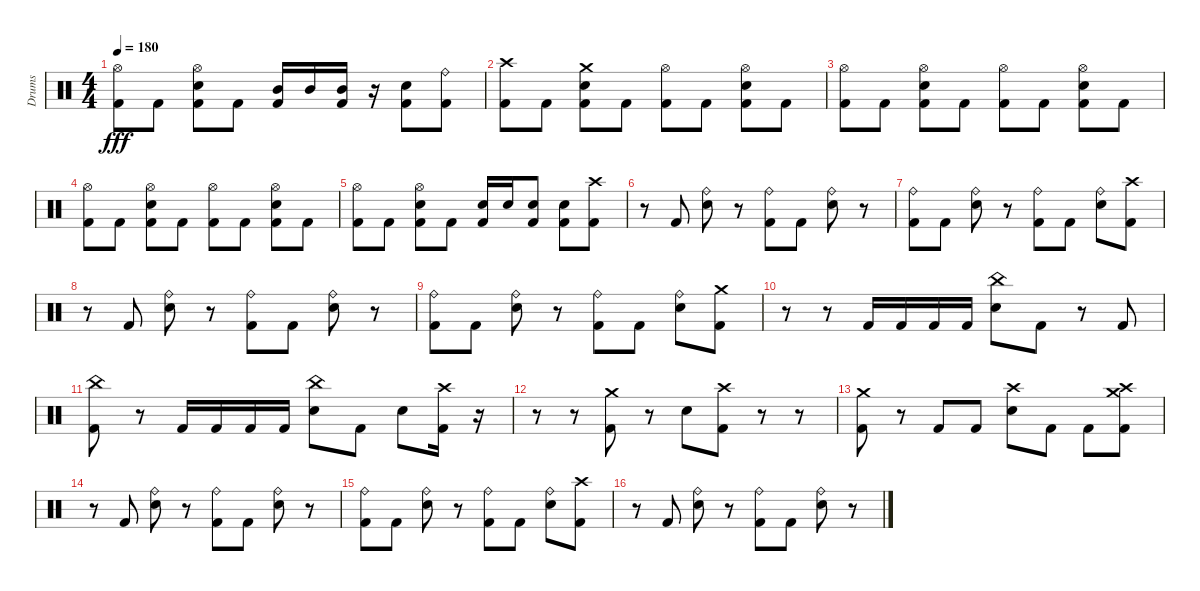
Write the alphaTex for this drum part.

\track ("Drums" "Drums") {instrument percussion}
\staff {score}
\articulation defaults
\ts (4 4)
\tempo 180
\clef neutral
\ks c
("Hi-Hat (open)" "Kick (hit) 2").8{dy fff} "Kick (hit) 2".8 ("Hi-Hat (open)" "Electric Snare (hit)" "Kick (hit) 2").8 "Kick (hit) 2".8 ("Mid Tom (hit)" "Kick (hit) 2").16 "Mid Tom (hit)".16 ("Mid Tom (hit)" "Kick (hit) 2").16 r.16 ("Electric Snare (hit)" "Kick (hit) 2").8 ("Ride (bell)" "Kick (hit) 2").8 |
("Crash high (hit)" "Kick (hit) 2").8 "Kick (hit) 2".8 ("Crash medium (hit)" "Electric Snare (hit)" "Kick (hit) 2").8 "Kick (hit) 2".8 ("Hi-Hat (open)" "Kick (hit) 2").8 "Kick (hit) 2".8 ("Hi-Hat (open)" "Electric Snare (hit)" "Kick (hit) 2").8 "Kick (hit) 2".8 |
("Hi-Hat (open)" "Kick (hit) 2").8 "Kick (hit) 2".8 ("Hi-Hat (open)" "Electric Snare (hit)" "Kick (hit) 2").8 "Kick (hit) 2".8 ("Hi-Hat (open)" "Kick (hit) 2").8 "Kick (hit) 2".8 ("Hi-Hat (open)" "Electric Snare (hit)" "Kick (hit) 2").8 "Kick (hit) 2".8 |
("Hi-Hat (open)" "Kick (hit) 2").8 "Kick (hit) 2".8 ("Hi-Hat (open)" "Electric Snare (hit)" "Kick (hit) 2").8 "Kick (hit) 2".8 ("Hi-Hat (open)" "Kick (hit) 2").8 "Kick (hit) 2".8 ("Hi-Hat (open)" "Electric Snare (hit)" "Kick (hit) 2").8 "Kick (hit) 2".8 |
("Hi-Hat (open)" "Kick (hit) 2").8 "Kick (hit) 2".8 ("Hi-Hat (open)" "Electric Snare (hit)" "Kick (hit) 2").8 "Kick (hit) 2".8 ("Electric Snare (hit)" "Kick (hit) 2").16 "Electric Snare (hit)".16 ("Electric Snare (hit)" "Kick (hit) 2").8 ("Electric Snare (hit)" "Kick (hit) 2").8 ("Crash high (hit)" "Kick (hit) 2").8 |
r.8 "Kick (hit) 2".8 ("Ride (bell)" "Electric Snare (hit)").8 r.8 ("Ride (bell)" "Kick (hit) 2").8 "Kick (hit) 2".8 ("Ride (bell)" "Electric Snare (hit)").8 r.8 |
("Ride (bell)" "Kick (hit) 2").8 "Kick (hit) 2".8 ("Ride (bell)" "Electric Snare (hit)").8 r.8 ("Ride (bell)" "Kick (hit) 2").8 "Kick (hit) 2".8 ("Ride (bell)" "Electric Snare (hit)").8 ("Crash high (hit)" "Kick (hit) 2").8 |
r.8 "Kick (hit) 2".8 ("Ride (bell)" "Electric Snare (hit)").8 r.8 ("Ride (bell)" "Kick (hit) 2").8 "Kick (hit) 2".8 ("Ride (bell)" "Electric Snare (hit)").8 r.8 |
("Ride (bell)" "Kick (hit) 2").8 "Kick (hit) 2".8 ("Ride (bell)" "Electric Snare (hit)").8 r.8 ("Ride (bell)" "Kick (hit) 2").8 "Kick (hit) 2".8 ("Ride (bell)" "Electric Snare (hit)").8 ("Crash medium (hit)" "Kick (hit) 2").8 |
r.8 r.8 "Kick (hit) 2".16 "Kick (hit) 2".16 "Kick (hit) 2".16 "Kick (hit) 2".16 ("China (hit)" "Electric Snare (hit)").8 "Kick (hit) 2".8 r.8 "Kick (hit) 2".8 |
("China (hit)" "Kick (hit) 2").8 r.8 "Kick (hit) 2".16 "Kick (hit) 2".16 "Kick (hit) 2".16 "Kick (hit) 2".16 ("China (hit)" "Electric Snare (hit)").8 "Kick (hit) 2".8 "Electric Snare (hit)".8 ("Crash high (hit)" "Kick (hit) 2").16 r.16 |
r.8 r.8 ("Crash medium (hit)" "Kick (hit) 2").8 r.8 "Electric Snare (hit)".8 ("Crash high (hit)" "Kick (hit) 2").8 r.8 r.8 |
("Crash medium (hit)" "Kick (hit) 2").8 r.8 "Kick (hit) 2".8 "Kick (hit) 2".8 ("Crash high (hit)" "Electric Snare (hit)").8 "Kick (hit) 2".8 "Kick (hit) 2".8 ("Crash high (hit)" "Crash medium (hit)" "Kick (hit) 2").8 |
r.8 "Kick (hit) 2".8 ("Ride (bell)" "Electric Snare (hit)").8 r.8 ("Ride (bell)" "Kick (hit) 2").8 "Kick (hit) 2".8 ("Ride (bell)" "Electric Snare (hit)").8 r.8 |
("Ride (bell)" "Kick (hit) 2").8 "Kick (hit) 2".8 ("Ride (bell)" "Electric Snare (hit)").8 r.8 ("Ride (bell)" "Kick (hit) 2").8 "Kick (hit) 2".8 ("Ride (bell)" "Electric Snare (hit)").8 ("Crash high (hit)" "Kick (hit) 2").8 |
r.8 "Kick (hit) 2".8 ("Ride (bell)" "Electric Snare (hit)").8 r.8 ("Ride (bell)" "Kick (hit) 2").8 "Kick (hit) 2".8 ("Ride (bell)" "Electric Snare (hit)").8 r.8
